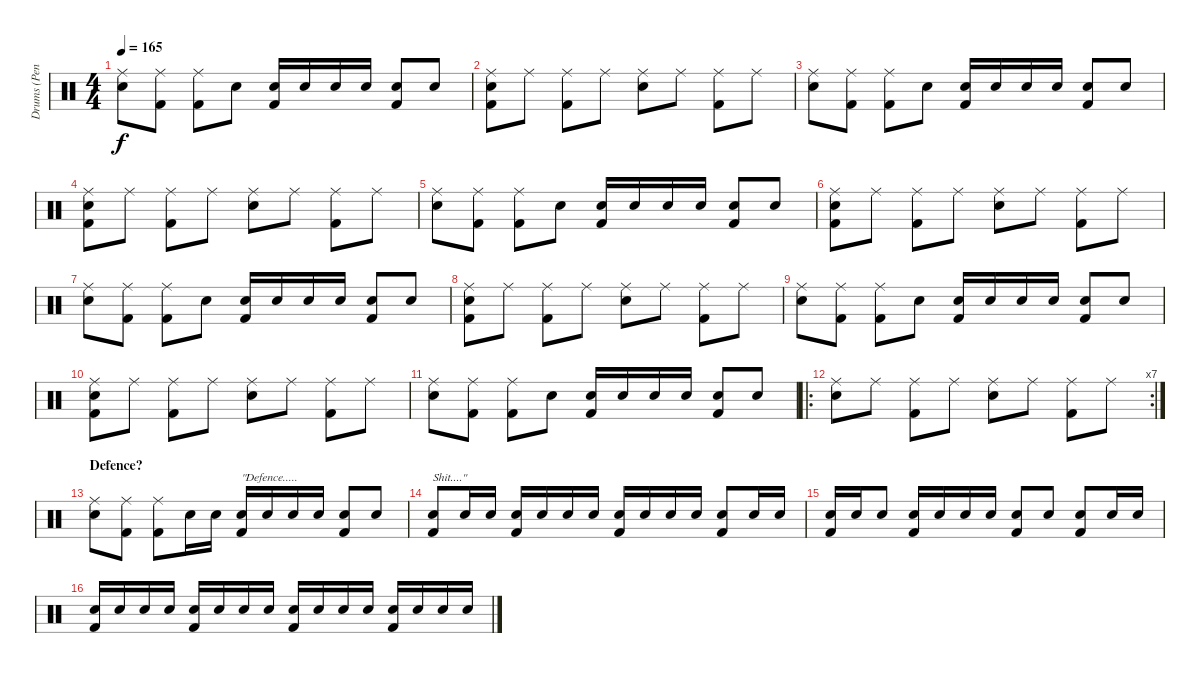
\track ("Drums (Penny Rimbaud)" "Drums (Pen") {instrument percussion}
\staff {score}
\articulation defaults
\ts (4 4)
\tempo 165
\clef neutral
\ks c
("Ride (middle)" "Electric Snare (hit)").8{dy f} ("Ride (middle)" "Kick (hit) 2").8 ("Ride (middle)" "Kick (hit) 2").8 "Electric Snare (hit)".8 ("Electric Snare (hit)" "Kick (hit) 2").16 "Electric Snare (hit)".16 "Electric Snare (hit)".16 "Electric Snare (hit)".16 ("Electric Snare (hit)" "Kick (hit) 2").8 "Electric Snare (hit)".8 |
("Ride (middle)" "Electric Snare (hit)" "Kick (hit) 2").8 "Ride (middle)".8 ("Ride (middle)" "Kick (hit) 2").8 "Ride (middle)".8 ("Ride (middle)" "Electric Snare (hit)").8 "Ride (middle)".8 ("Ride (middle)" "Kick (hit) 2").8 "Ride (middle)".8 |
("Ride (middle)" "Electric Snare (hit)").8 ("Ride (middle)" "Kick (hit) 2").8 ("Ride (middle)" "Kick (hit) 2").8 "Electric Snare (hit)".8 ("Electric Snare (hit)" "Kick (hit) 2").16 "Electric Snare (hit)".16 "Electric Snare (hit)".16 "Electric Snare (hit)".16 ("Electric Snare (hit)" "Kick (hit) 2").8 "Electric Snare (hit)".8 |
("Ride (middle)" "Electric Snare (hit)" "Kick (hit) 2").8 "Ride (middle)".8 ("Ride (middle)" "Kick (hit) 2").8 "Ride (middle)".8 ("Ride (middle)" "Electric Snare (hit)").8 "Ride (middle)".8 ("Ride (middle)" "Kick (hit) 2").8 "Ride (middle)".8 |
("Ride (middle)" "Electric Snare (hit)").8 ("Ride (middle)" "Kick (hit) 2").8 ("Ride (middle)" "Kick (hit) 2").8 "Electric Snare (hit)".8 ("Electric Snare (hit)" "Kick (hit) 2").16 "Electric Snare (hit)".16 "Electric Snare (hit)".16 "Electric Snare (hit)".16 ("Electric Snare (hit)" "Kick (hit) 2").8 "Electric Snare (hit)".8 |
("Ride (middle)" "Electric Snare (hit)" "Kick (hit) 2").8 "Ride (middle)".8 ("Ride (middle)" "Kick (hit) 2").8 "Ride (middle)".8 ("Ride (middle)" "Electric Snare (hit)").8 "Ride (middle)".8 ("Ride (middle)" "Kick (hit) 2").8 "Ride (middle)".8 |
("Ride (middle)" "Electric Snare (hit)").8 ("Ride (middle)" "Kick (hit) 2").8 ("Ride (middle)" "Kick (hit) 2").8 "Electric Snare (hit)".8 ("Electric Snare (hit)" "Kick (hit) 2").16 "Electric Snare (hit)".16 "Electric Snare (hit)".16 "Electric Snare (hit)".16 ("Electric Snare (hit)" "Kick (hit) 2").8 "Electric Snare (hit)".8 |
("Ride (middle)" "Electric Snare (hit)" "Kick (hit) 2").8 "Ride (middle)".8 ("Ride (middle)" "Kick (hit) 2").8 "Ride (middle)".8 ("Ride (middle)" "Electric Snare (hit)").8 "Ride (middle)".8 ("Ride (middle)" "Kick (hit) 2").8 "Ride (middle)".8 |
("Ride (middle)" "Electric Snare (hit)").8 ("Ride (middle)" "Kick (hit) 2").8 ("Ride (middle)" "Kick (hit) 2").8 "Electric Snare (hit)".8 ("Electric Snare (hit)" "Kick (hit) 2").16 "Electric Snare (hit)".16 "Electric Snare (hit)".16 "Electric Snare (hit)".16 ("Electric Snare (hit)" "Kick (hit) 2").8 "Electric Snare (hit)".8 |
("Ride (middle)" "Electric Snare (hit)" "Kick (hit) 2").8 "Ride (middle)".8 ("Ride (middle)" "Kick (hit) 2").8 "Ride (middle)".8 ("Ride (middle)" "Electric Snare (hit)").8 "Ride (middle)".8 ("Ride (middle)" "Kick (hit) 2").8 "Ride (middle)".8 |
("Ride (middle)" "Electric Snare (hit)").8 ("Ride (middle)" "Kick (hit) 2").8 ("Ride (middle)" "Kick (hit) 2").8 "Electric Snare (hit)".8 ("Electric Snare (hit)" "Kick (hit) 2").16 "Electric Snare (hit)".16 "Electric Snare (hit)".16 "Electric Snare (hit)".16 ("Electric Snare (hit)" "Kick (hit) 2").8 "Electric Snare (hit)".8 |
\ro
\rc 7
("Ride (middle)" "Electric Snare (hit)").8 "Ride (middle)".8 ("Ride (middle)" "Kick (hit) 2").8 "Ride (middle)".8 ("Ride (middle)" "Electric Snare (hit)").8 "Ride (middle)".8 ("Ride (middle)" "Kick (hit) 2").8 "Ride (middle)".8 |
\section ("" "Defence?")
("Ride (middle)" "Electric Snare (hit)").8 ("Ride (middle)" "Kick (hit) 2").8 ("Ride (middle)" "Kick (hit) 2").8 "Electric Snare (hit)".16 "Electric Snare (hit)".16 ("Electric Snare (hit)" "Kick (hit) 2").16{txt "\"Defence....."} "Electric Snare (hit)".16 "Electric Snare (hit)".16 "Electric Snare (hit)".16 ("Electric Snare (hit)" "Kick (hit) 2").8 "Electric Snare (hit)".8 |
("Electric Snare (hit)" "Kick (hit) 2").8{txt "Shit....\""} "Electric Snare (hit)".16 "Electric Snare (hit)".16 ("Electric Snare (hit)" "Kick (hit) 2").16 "Electric Snare (hit)".16 "Electric Snare (hit)".16 "Electric Snare (hit)".16 ("Electric Snare (hit)" "Kick (hit) 2").16 "Electric Snare (hit)".16 "Electric Snare (hit)".16 "Electric Snare (hit)".16 ("Electric Snare (hit)" "Kick (hit) 2").8 "Electric Snare (hit)".16 "Electric Snare (hit)".16 |
("Electric Snare (hit)" "Kick (hit) 2").16 "Electric Snare (hit)".16 "Electric Snare (hit)".8 ("Electric Snare (hit)" "Kick (hit) 2").16 "Electric Snare (hit)".16 "Electric Snare (hit)".16 "Electric Snare (hit)".16 ("Electric Snare (hit)" "Kick (hit) 2").8 "Electric Snare (hit)".8 ("Electric Snare (hit)" "Kick (hit) 2").8 "Electric Snare (hit)".16 "Electric Snare (hit)".16 |
("Electric Snare (hit)" "Kick (hit) 2").16 "Electric Snare (hit)".16 "Electric Snare (hit)".16 "Electric Snare (hit)".16 ("Electric Snare (hit)" "Kick (hit) 2").16 "Electric Snare (hit)".16 "Electric Snare (hit)".16 "Electric Snare (hit)".16 ("Electric Snare (hit)" "Kick (hit) 2").16 "Electric Snare (hit)".16 "Electric Snare (hit)".16 "Electric Snare (hit)".16 ("Electric Snare (hit)" "Kick (hit) 2").16 "Electric Snare (hit)".16 "Electric Snare (hit)".16 "Electric Snare (hit)".16
